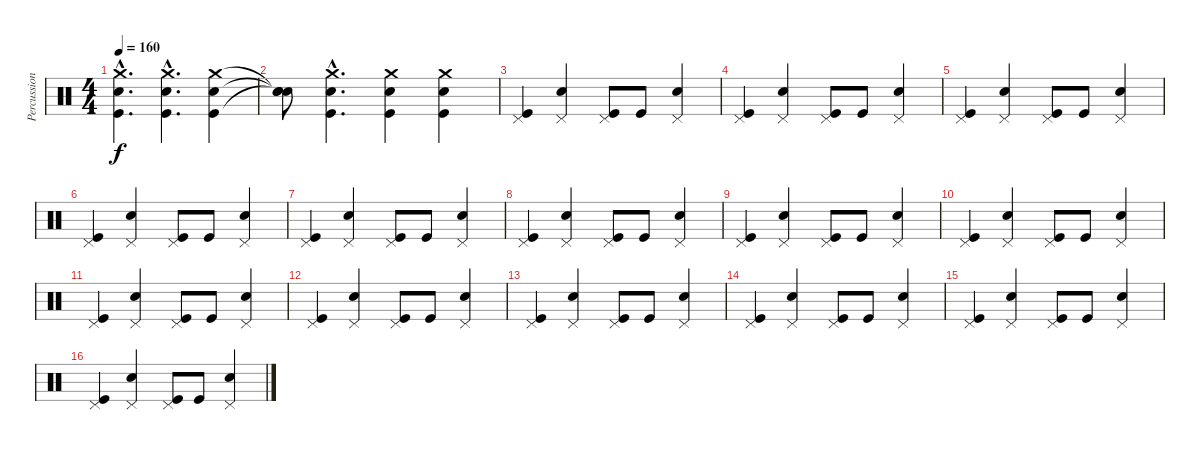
\track ("Percussion" "Percussion") {instrument percussion}
\staff {score}
\articulation defaults
\ts (4 4)
\tempo 160
\clef neutral
\ks c
("Crash medium (hit)"{hac} "Snare (hit) 2"{hac} "Kick (hit)"{hac}).4{d dy f} ("Crash medium (hit)"{hac} "Snare (hit) 2"{hac} "Kick (hit)"{hac}).4{d} ("Crash medium (hit)" "Snare (hit) 2" "Kick (hit)").4 |
("Snare (hit)"{t} "Snare (hit)"{t} "Snare (hit)"{t}).8 ("Crash medium (hit)"{hac} "Snare (hit) 2"{hac} "Kick (hit)"{hac}).4{d} ("Crash medium (hit)" "Snare (hit) 2" "Kick (hit)").4 ("Crash medium (hit)" "Snare (hit) 2" "Kick (hit)").4 |
("Pedal Hi-Hat (hit)" "Kick (hit)").4 ("Snare (hit) 2" "Pedal Hi-Hat (hit)").4 ("Pedal Hi-Hat (hit)" "Kick (hit)").8 "Kick (hit)".8 ("Snare (hit) 2" "Pedal Hi-Hat (hit)").4 |
("Pedal Hi-Hat (hit)" "Kick (hit)").4 ("Snare (hit) 2" "Pedal Hi-Hat (hit)").4 ("Pedal Hi-Hat (hit)" "Kick (hit)").8 "Kick (hit)".8 ("Snare (hit) 2" "Pedal Hi-Hat (hit)").4 |
("Pedal Hi-Hat (hit)" "Kick (hit)").4 ("Snare (hit) 2" "Pedal Hi-Hat (hit)").4 ("Pedal Hi-Hat (hit)" "Kick (hit)").8 "Kick (hit)".8 ("Snare (hit) 2" "Pedal Hi-Hat (hit)").4 |
("Pedal Hi-Hat (hit)" "Kick (hit)").4 ("Snare (hit) 2" "Pedal Hi-Hat (hit)").4 ("Pedal Hi-Hat (hit)" "Kick (hit)").8 "Kick (hit)".8 ("Snare (hit) 2" "Pedal Hi-Hat (hit)").4 |
("Pedal Hi-Hat (hit)" "Kick (hit)").4 ("Snare (hit) 2" "Pedal Hi-Hat (hit)").4 ("Pedal Hi-Hat (hit)" "Kick (hit)").8 "Kick (hit)".8 ("Snare (hit) 2" "Pedal Hi-Hat (hit)").4 |
("Pedal Hi-Hat (hit)" "Kick (hit)").4 ("Snare (hit) 2" "Pedal Hi-Hat (hit)").4 ("Pedal Hi-Hat (hit)" "Kick (hit)").8 "Kick (hit)".8 ("Snare (hit) 2" "Pedal Hi-Hat (hit)").4 |
("Pedal Hi-Hat (hit)" "Kick (hit)").4 ("Snare (hit) 2" "Pedal Hi-Hat (hit)").4 ("Pedal Hi-Hat (hit)" "Kick (hit)").8 "Kick (hit)".8 ("Snare (hit) 2" "Pedal Hi-Hat (hit)").4 |
("Pedal Hi-Hat (hit)" "Kick (hit)").4 ("Snare (hit) 2" "Pedal Hi-Hat (hit)").4 ("Pedal Hi-Hat (hit)" "Kick (hit)").8 "Kick (hit)".8 ("Snare (hit) 2" "Pedal Hi-Hat (hit)").4 |
("Pedal Hi-Hat (hit)" "Kick (hit)").4 ("Snare (hit) 2" "Pedal Hi-Hat (hit)").4 ("Pedal Hi-Hat (hit)" "Kick (hit)").8 "Kick (hit)".8 ("Snare (hit) 2" "Pedal Hi-Hat (hit)").4 |
("Pedal Hi-Hat (hit)" "Kick (hit)").4 ("Snare (hit) 2" "Pedal Hi-Hat (hit)").4 ("Pedal Hi-Hat (hit)" "Kick (hit)").8 "Kick (hit)".8 ("Snare (hit) 2" "Pedal Hi-Hat (hit)").4 |
("Pedal Hi-Hat (hit)" "Kick (hit)").4 ("Snare (hit) 2" "Pedal Hi-Hat (hit)").4 ("Pedal Hi-Hat (hit)" "Kick (hit)").8 "Kick (hit)".8 ("Snare (hit) 2" "Pedal Hi-Hat (hit)").4 |
("Pedal Hi-Hat (hit)" "Kick (hit)").4 ("Snare (hit) 2" "Pedal Hi-Hat (hit)").4 ("Pedal Hi-Hat (hit)" "Kick (hit)").8 "Kick (hit)".8 ("Snare (hit) 2" "Pedal Hi-Hat (hit)").4 |
("Pedal Hi-Hat (hit)" "Kick (hit)").4 ("Snare (hit) 2" "Pedal Hi-Hat (hit)").4 ("Pedal Hi-Hat (hit)" "Kick (hit)").8 "Kick (hit)".8 ("Snare (hit) 2" "Pedal Hi-Hat (hit)").4 |
("Pedal Hi-Hat (hit)" "Kick (hit)").4 ("Snare (hit) 2" "Pedal Hi-Hat (hit)").4 ("Pedal Hi-Hat (hit)" "Kick (hit)").8 "Kick (hit)".8 ("Snare (hit) 2" "Pedal Hi-Hat (hit)").4
